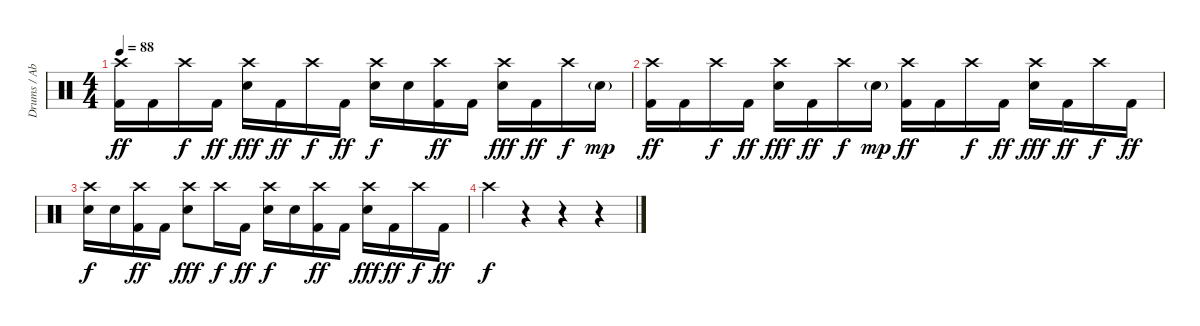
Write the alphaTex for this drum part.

\track ("Drums / Abe Cunningham" "Drums / Ab") {instrument percussion}
\staff {score}
\articulation defaults
\ts (4 4)
\tempo 88
\clef neutral
\ks c
("Crash high (hit)" "Kick (hit) 2").16{dy ff} "Kick (hit) 2".16 "Crash high (hit)".16{dy f} "Kick (hit) 2".16{dy ff} ("Crash high (hit)" "Electric Snare (hit)").16{dy fff} "Kick (hit) 2".16{dy ff} "Crash high (hit)".16{dy f} "Kick (hit) 2".16{dy ff} ("Crash high (hit)" "Electric Snare (hit)").16{dy f} "Electric Snare (hit)".16 ("Crash high (hit)" "Kick (hit) 2").16{dy ff} "Kick (hit) 2".16 ("Crash high (hit)" "Electric Snare (hit)").16{dy fff} "Kick (hit) 2".16{dy ff} "Crash high (hit)".16{dy f} "Electric Snare (hit)"{g}.16{dy mp} |
("Crash high (hit)" "Kick (hit) 2").16{dy ff} "Kick (hit) 2".16 "Crash high (hit)".16{dy f} "Kick (hit) 2".16{dy ff} ("Crash high (hit)" "Electric Snare (hit)").16{dy fff} "Kick (hit) 2".16{dy ff} "Crash high (hit)".16{dy f} "Electric Snare (hit)"{g}.16{dy mp} ("Crash high (hit)" "Kick (hit) 2").16{dy ff} "Kick (hit) 2".16 "Crash high (hit)".16{dy f} "Kick (hit) 2".16{dy ff} ("Crash high (hit)" "Electric Snare (hit)").16{dy fff} "Kick (hit) 2".16{dy ff} "Crash high (hit)".16{dy f} "Kick (hit) 2".16{dy ff} |
("Crash high (hit)" "Electric Snare (hit)").16{dy f} "Electric Snare (hit)".16 ("Crash high (hit)" "Kick (hit) 2").16{dy ff} "Kick (hit) 2".16 ("Crash high (hit)" "Electric Snare (hit)").8{dy fff} "Crash high (hit)".16{dy f} "Kick (hit) 2".16{dy ff} ("Crash high (hit)" "Electric Snare (hit)").16{dy f} "Electric Snare (hit)".16 ("Crash high (hit)" "Kick (hit) 2").16{dy ff} "Kick (hit) 2".16 ("Crash high (hit)" "Electric Snare (hit)").16{dy fff} "Kick (hit) 2".16{dy ff} "Crash high (hit)".16{dy f} "Kick (hit) 2".16{dy ff} |
"Crash high (hit)".4{dy f} r.4 r.4 r.4
